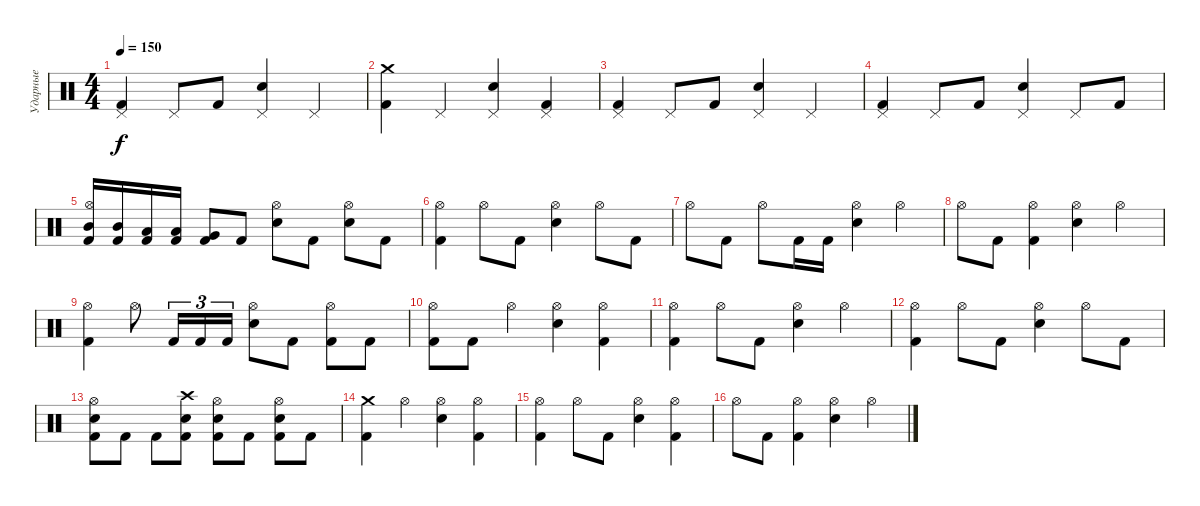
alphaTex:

\track ("Ударные" "Ударные") {mute instrument percussion}
\staff {score}
\articulation defaults
\ts (4 4)
\tempo 150
\clef neutral
\ks c
("Pedal Hi-Hat (hit)" "Kick (hit) 2").4{dy f} "Pedal Hi-Hat (hit)".8 "Kick (hit) 2".8 ("Pedal Hi-Hat (hit)" "Snare (hit) 2").4 "Pedal Hi-Hat (hit)".4 |
("Crash medium (hit)" "Kick (hit) 2").4 "Pedal Hi-Hat (hit)".4 ("Pedal Hi-Hat (hit)" "Snare (hit) 2").4 ("Pedal Hi-Hat (hit)" "Kick (hit) 2").4 |
("Pedal Hi-Hat (hit)" "Kick (hit) 2").4 "Pedal Hi-Hat (hit)".8 "Kick (hit) 2".8 ("Pedal Hi-Hat (hit)" "Snare (hit) 2").4 "Pedal Hi-Hat (hit)".4 |
("Pedal Hi-Hat (hit)" "Kick (hit) 2").4 "Pedal Hi-Hat (hit)".8 "Kick (hit) 2".8 ("Pedal Hi-Hat (hit)" "Snare (hit) 2").4 "Pedal Hi-Hat (hit)".8 "Kick (hit) 2".8 |
("Hi-Hat (open)" "Mid Tom (hit)" "Kick (hit) 2").16 ("Mid Tom (hit)" "Kick (hit) 2").16 ("Low Tom (hit)" "Kick (hit) 2").16 ("Low Tom (hit)" "Kick (hit) 2").16 ("Very Low Tom (hit)" "Kick (hit) 2").8 "Kick (hit) 2".8 ("Hi-Hat (open)" "Snare (hit) 2").8 "Kick (hit) 2".8 ("Hi-Hat (open)" "Snare (hit) 2").8 "Kick (hit) 2".8 |
("Hi-Hat (open)" "Kick (hit) 2").4 "Hi-Hat (open)".8 "Kick (hit) 2".8 ("Hi-Hat (open)" "Snare (hit) 2").4 "Hi-Hat (open)".8 "Kick (hit) 2".8 |
"Hi-Hat (open)".8 "Kick (hit) 2".8 "Hi-Hat (open)".8 "Kick (hit) 2".16 "Kick (hit) 2".16 ("Hi-Hat (open)" "Snare (hit) 2").4 "Hi-Hat (open)".4 |
"Hi-Hat (open)".8 "Kick (hit) 2".8 ("Hi-Hat (open)" "Kick (hit) 2").4 ("Hi-Hat (open)" "Snare (hit) 2").4 "Hi-Hat (open)".4 |
("Hi-Hat (open)" "Kick (hit) 2").4 "Hi-Hat (open)".8 "Kick (hit) 2".16{tu (3 2)} "Kick (hit) 2".16{tu (3 2)} "Kick (hit) 2".16{tu (3 2)} ("Hi-Hat (open)" "Snare (hit) 2").8 "Kick (hit) 2".8 ("Hi-Hat (open)" "Kick (hit) 2").8 "Kick (hit) 2".8 |
("Hi-Hat (open)" "Kick (hit) 2").8 "Kick (hit) 2".8 "Hi-Hat (open)".4 ("Hi-Hat (open)" "Snare (hit) 2").4 ("Hi-Hat (open)" "Kick (hit) 2").4 |
("Hi-Hat (open)" "Kick (hit) 2").4 "Hi-Hat (open)".8 "Kick (hit) 2".8 ("Hi-Hat (open)" "Snare (hit) 2").4 "Hi-Hat (open)".4 |
("Hi-Hat (open)" "Kick (hit) 2").4 "Hi-Hat (open)".8 "Kick (hit) 2".8 ("Hi-Hat (open)" "Snare (hit) 2").4 "Hi-Hat (open)".8 "Kick (hit) 2".8 |
("Hi-Hat (open)" "Snare (hit) 2" "Kick (hit) 2").8 "Kick (hit) 2".8 "Kick (hit) 2".8 ("Crash high (hit)" "Snare (hit) 2" "Kick (hit) 2").8 ("Hi-Hat (open)" "Snare (hit) 2" "Kick (hit) 2").8 "Kick (hit) 2".8 ("Hi-Hat (open)" "Snare (hit) 2" "Kick (hit) 2").8 "Kick (hit) 2".8 |
("Crash medium (hit)" "Kick (hit) 2").4 "Hi-Hat (open)".4 ("Hi-Hat (open)" "Snare (hit) 2").4 ("Hi-Hat (open)" "Kick (hit) 2").4 |
("Hi-Hat (open)" "Kick (hit) 2").4 "Hi-Hat (open)".8 "Kick (hit) 2".8 ("Hi-Hat (open)" "Snare (hit) 2").4 ("Hi-Hat (open)" "Kick (hit) 2").4 |
"Hi-Hat (open)".8 "Kick (hit) 2".8 ("Hi-Hat (open)" "Kick (hit) 2").4 ("Hi-Hat (open)" "Snare (hit) 2").4 "Hi-Hat (open)".4
